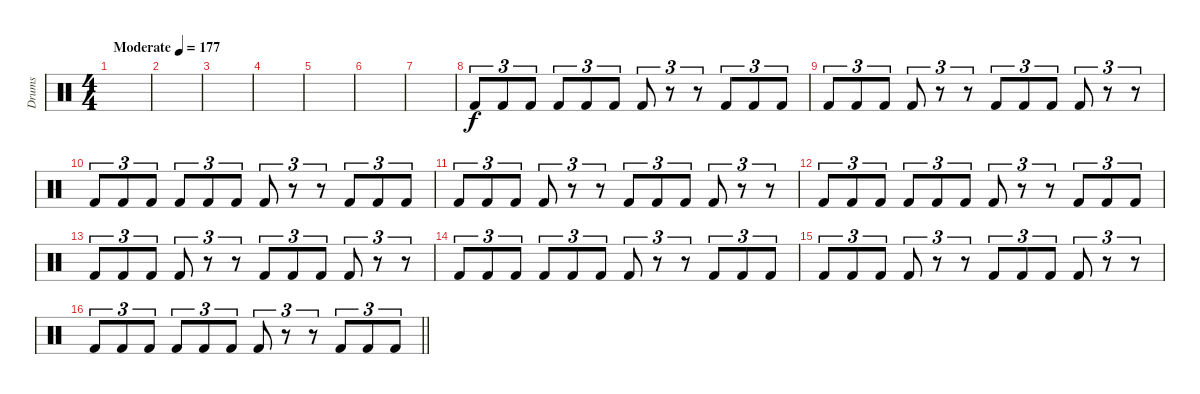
\track ("Drums" "Drums") {instrument percussion}
\staff {score}
\articulation defaults
\ts (4 4)
\tempo (177 "Moderate")
\clef neutral
\ks c
|
|
|
|
|
|
|
"Kick (hit) 2".8{tu (3 2)} "Kick (hit) 2".8{tu (3 2)} "Kick (hit) 2".8{tu (3 2)} "Kick (hit) 2".8{tu (3 2)} "Kick (hit) 2".8{tu (3 2)} "Kick (hit) 2".8{tu (3 2)} "Kick (hit) 2".8{tu (3 2)} r.8{tu (3 2)} r.8{tu (3 2)} "Kick (hit) 2".8{tu (3 2)} "Kick (hit) 2".8{tu (3 2)} "Kick (hit) 2".8{tu (3 2)} |
"Kick (hit) 2".8{tu (3 2)} "Kick (hit) 2".8{tu (3 2)} "Kick (hit) 2".8{tu (3 2)} "Kick (hit) 2".8{tu (3 2)} r.8{tu (3 2)} r.8{tu (3 2)} "Kick (hit) 2".8{tu (3 2)} "Kick (hit) 2".8{tu (3 2)} "Kick (hit) 2".8{tu (3 2)} "Kick (hit) 2".8{tu (3 2)} r.8{tu (3 2)} r.8{tu (3 2)} |
"Kick (hit) 2".8{tu (3 2)} "Kick (hit) 2".8{tu (3 2)} "Kick (hit) 2".8{tu (3 2)} "Kick (hit) 2".8{tu (3 2)} "Kick (hit) 2".8{tu (3 2)} "Kick (hit) 2".8{tu (3 2)} "Kick (hit) 2".8{tu (3 2)} r.8{tu (3 2)} r.8{tu (3 2)} "Kick (hit) 2".8{tu (3 2)} "Kick (hit) 2".8{tu (3 2)} "Kick (hit) 2".8{tu (3 2)} |
"Kick (hit) 2".8{tu (3 2)} "Kick (hit) 2".8{tu (3 2)} "Kick (hit) 2".8{tu (3 2)} "Kick (hit) 2".8{tu (3 2)} r.8{tu (3 2)} r.8{tu (3 2)} "Kick (hit) 2".8{tu (3 2)} "Kick (hit) 2".8{tu (3 2)} "Kick (hit) 2".8{tu (3 2)} "Kick (hit) 2".8{tu (3 2)} r.8{tu (3 2)} r.8{tu (3 2)} |
"Kick (hit) 2".8{tu (3 2)} "Kick (hit) 2".8{tu (3 2)} "Kick (hit) 2".8{tu (3 2)} "Kick (hit) 2".8{tu (3 2)} "Kick (hit) 2".8{tu (3 2)} "Kick (hit) 2".8{tu (3 2)} "Kick (hit) 2".8{tu (3 2)} r.8{tu (3 2)} r.8{tu (3 2)} "Kick (hit) 2".8{tu (3 2)} "Kick (hit) 2".8{tu (3 2)} "Kick (hit) 2".8{tu (3 2)} |
"Kick (hit) 2".8{tu (3 2)} "Kick (hit) 2".8{tu (3 2)} "Kick (hit) 2".8{tu (3 2)} "Kick (hit) 2".8{tu (3 2)} r.8{tu (3 2)} r.8{tu (3 2)} "Kick (hit) 2".8{tu (3 2)} "Kick (hit) 2".8{tu (3 2)} "Kick (hit) 2".8{tu (3 2)} "Kick (hit) 2".8{tu (3 2)} r.8{tu (3 2)} r.8{tu (3 2)} |
"Kick (hit) 2".8{tu (3 2)} "Kick (hit) 2".8{tu (3 2)} "Kick (hit) 2".8{tu (3 2)} "Kick (hit) 2".8{tu (3 2)} "Kick (hit) 2".8{tu (3 2)} "Kick (hit) 2".8{tu (3 2)} "Kick (hit) 2".8{tu (3 2)} r.8{tu (3 2)} r.8{tu (3 2)} "Kick (hit) 2".8{tu (3 2)} "Kick (hit) 2".8{tu (3 2)} "Kick (hit) 2".8{tu (3 2)} |
"Kick (hit) 2".8{tu (3 2)} "Kick (hit) 2".8{tu (3 2)} "Kick (hit) 2".8{tu (3 2)} "Kick (hit) 2".8{tu (3 2)} r.8{tu (3 2)} r.8{tu (3 2)} "Kick (hit) 2".8{tu (3 2)} "Kick (hit) 2".8{tu (3 2)} "Kick (hit) 2".8{tu (3 2)} "Kick (hit) 2".8{tu (3 2)} r.8{tu (3 2)} r.8{tu (3 2)} |
\barLineRight lightlight "Kick (hit) 2".8{tu (3 2)} "Kick (hit) 2".8{tu (3 2)} "Kick (hit) 2".8{tu (3 2)} "Kick (hit) 2".8{tu (3 2)} "Kick (hit) 2".8{tu (3 2)} "Kick (hit) 2".8{tu (3 2)} "Kick (hit) 2".8{tu (3 2)}
r.8{tu (3 2)} r.8{tu (3 2)} "Kick (hit) 2".8{tu (3 2)} "Kick (hit) 2".8{tu (3 2)} "Kick (hit) 2".8{tu (3 2)}
